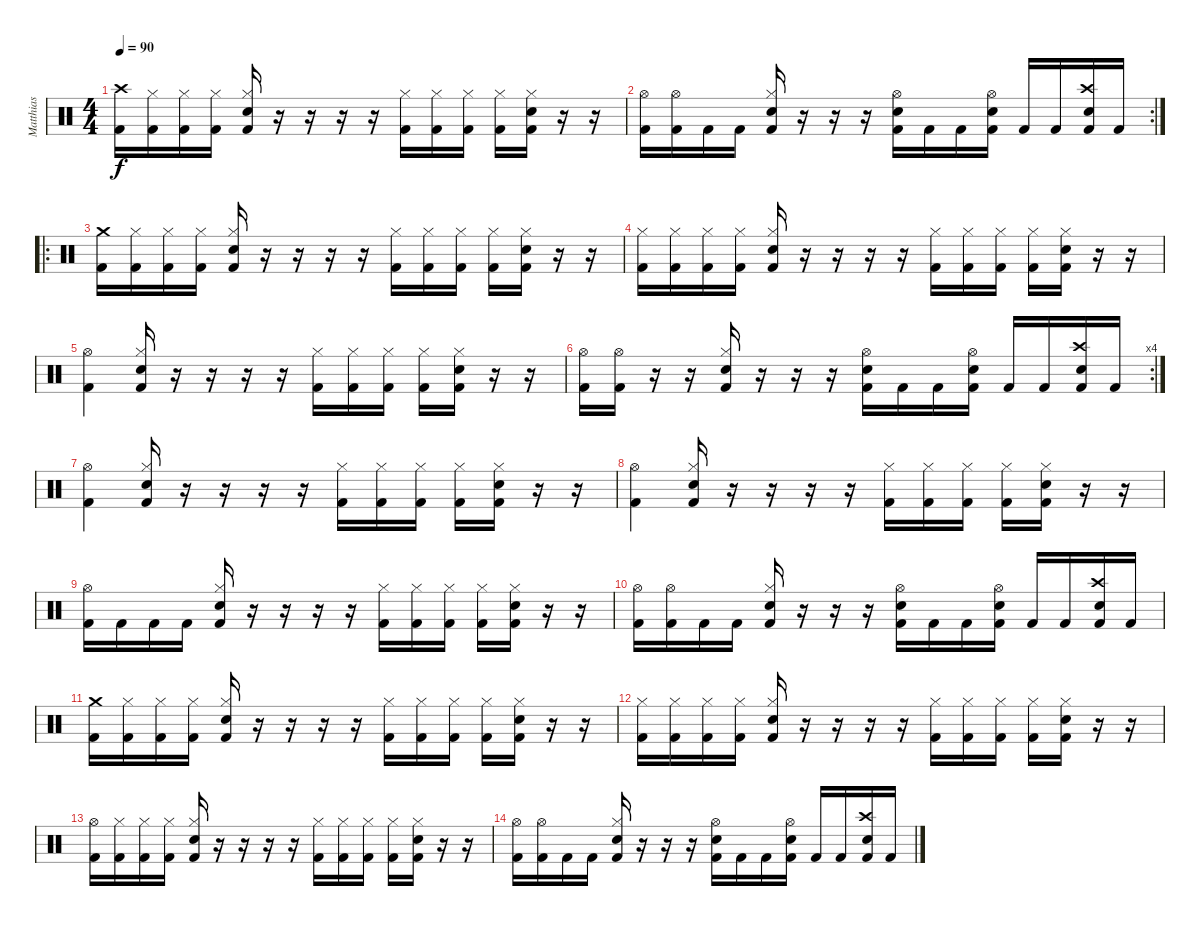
\track ("Matthias" "Matthias") {instrument percussion}
\staff {score}
\articulation defaults
\ts (4 4)
\tempo 90
\clef neutral
\ks c
("Kick (hit) 2" "Crash high (hit)").16{dy f} ("Kick (hit) 2" "Hi-Hat (closed)").16 ("Kick (hit) 2" "Hi-Hat (closed)").16 ("Kick (hit) 2" "Hi-Hat (closed)").16 ("Kick (hit) 2" "Snare (hit) 2" "Hi-Hat (closed)").16 r.16 r.16 r.16 r.16 ("Kick (hit) 2" "Hi-Hat (closed)").16 ("Kick (hit) 2" "Hi-Hat (closed)").16 ("Kick (hit) 2" "Hi-Hat (closed)").16 ("Kick (hit) 2" "Hi-Hat (closed)").16 ("Kick (hit) 2" "Snare (hit) 2" "Hi-Hat (closed)").16 r.16 r.16 |
\rc 2
("Kick (hit) 2" "Hi-Hat (open)").16 ("Kick (hit) 2" "Hi-Hat (open)").16 "Kick (hit) 2".16 "Kick (hit) 2".16 ("Kick (hit) 2" "Snare (hit) 2" "Hi-Hat (closed)").16 r.16 r.16 r.16 ("Kick (hit) 2" "Snare (hit) 2" "Hi-Hat (open)").16 "Kick (hit) 2".16 "Kick (hit) 2".16 ("Kick (hit) 2" "Snare (hit) 2" "Hi-Hat (open)").16 "Kick (hit) 2".16 "Kick (hit) 2".16 ("Kick (hit) 2" "Snare (hit) 2" "Crash high (hit)").16 "Kick (hit) 2".16 |
\ro
("Kick (hit) 2" "Crash medium (hit)").16 ("Kick (hit) 2" "Hi-Hat (closed)").16 ("Kick (hit) 2" "Hi-Hat (closed)").16 ("Kick (hit) 2" "Hi-Hat (closed)").16 ("Kick (hit) 2" "Snare (hit) 2" "Hi-Hat (closed)").16 r.16 r.16 r.16 r.16 ("Kick (hit) 2" "Hi-Hat (closed)").16 ("Kick (hit) 2" "Hi-Hat (closed)").16 ("Kick (hit) 2" "Hi-Hat (closed)").16 ("Kick (hit) 2" "Hi-Hat (closed)").16 ("Kick (hit) 2" "Snare (hit) 2" "Hi-Hat (closed)").16 r.16 r.16 |
("Kick (hit) 2" "Hi-Hat (closed)").16 ("Kick (hit) 2" "Hi-Hat (closed)").16 ("Kick (hit) 2" "Hi-Hat (closed)").16 ("Kick (hit) 2" "Hi-Hat (closed)").16 ("Kick (hit) 2" "Snare (hit) 2" "Hi-Hat (closed)").16 r.16 r.16 r.16 r.16 ("Kick (hit) 2" "Hi-Hat (closed)").16 ("Kick (hit) 2" "Hi-Hat (closed)").16 ("Kick (hit) 2" "Hi-Hat (closed)").16 ("Kick (hit) 2" "Hi-Hat (closed)").16 ("Kick (hit) 2" "Snare (hit) 2" "Hi-Hat (closed)").16 r.16 r.16 |
("Kick (hit) 2" "Hi-Hat (open)").4 ("Kick (hit) 2" "Snare (hit) 2" "Hi-Hat (closed)").16 r.16 r.16 r.16 r.16 ("Kick (hit) 2" "Hi-Hat (closed)").16 ("Kick (hit) 2" "Hi-Hat (closed)").16 ("Kick (hit) 2" "Hi-Hat (closed)").16 ("Kick (hit) 2" "Hi-Hat (closed)").16 ("Kick (hit) 2" "Snare (hit) 2" "Hi-Hat (closed)").16 r.16 r.16 |
\rc 4
("Kick (hit) 2" "Hi-Hat (open)").16 ("Kick (hit) 2" "Hi-Hat (open)").16 r.16 r.16 ("Kick (hit) 2" "Snare (hit) 2" "Hi-Hat (closed)").16 r.16 r.16 r.16 ("Kick (hit) 2" "Snare (hit) 2" "Hi-Hat (open)").16 "Kick (hit) 2".16 "Kick (hit) 2".16 ("Kick (hit) 2" "Snare (hit) 2" "Hi-Hat (open)").16 "Kick (hit) 2".16 "Kick (hit) 2".16 ("Kick (hit) 2" "Snare (hit) 2" "Crash high (hit)").16 "Kick (hit) 2".16 |
("Kick (hit) 2" "Hi-Hat (open)").4 ("Kick (hit) 2" "Snare (hit) 2" "Hi-Hat (closed)").16 r.16 r.16 r.16 r.16 ("Kick (hit) 2" "Hi-Hat (closed)").16 ("Kick (hit) 2" "Hi-Hat (closed)").16 ("Kick (hit) 2" "Hi-Hat (closed)").16 ("Kick (hit) 2" "Hi-Hat (closed)").16 ("Kick (hit) 2" "Snare (hit) 2" "Hi-Hat (closed)").16 r.16 r.16 |
("Kick (hit) 2" "Hi-Hat (open)").4 ("Kick (hit) 2" "Snare (hit) 2" "Hi-Hat (closed)").16 r.16 r.16 r.16 r.16 ("Kick (hit) 2" "Hi-Hat (closed)").16 ("Kick (hit) 2" "Hi-Hat (closed)").16 ("Kick (hit) 2" "Hi-Hat (closed)").16 ("Kick (hit) 2" "Hi-Hat (closed)").16 ("Kick (hit) 2" "Snare (hit) 2" "Hi-Hat (closed)").16 r.16 r.16 |
("Kick (hit) 2" "Hi-Hat (open)").16 "Kick (hit) 2".16 "Kick (hit) 2".16 "Kick (hit) 2".16 ("Kick (hit) 2" "Snare (hit) 2" "Hi-Hat (closed)").16 r.16 r.16 r.16 r.16 ("Kick (hit) 2" "Hi-Hat (closed)").16 ("Kick (hit) 2" "Hi-Hat (closed)").16 ("Kick (hit) 2" "Hi-Hat (closed)").16 ("Kick (hit) 2" "Hi-Hat (closed)").16 ("Kick (hit) 2" "Snare (hit) 2" "Hi-Hat (closed)").16 r.16 r.16 |
("Kick (hit) 2" "Hi-Hat (open)").16 ("Kick (hit) 2" "Hi-Hat (open)").16 "Kick (hit) 2".16 "Kick (hit) 2".16 ("Kick (hit) 2" "Snare (hit) 2" "Hi-Hat (closed)").16 r.16 r.16 r.16 ("Kick (hit) 2" "Snare (hit) 2" "Hi-Hat (open)").16 "Kick (hit) 2".16 "Kick (hit) 2".16 ("Kick (hit) 2" "Snare (hit) 2" "Hi-Hat (open)").16 "Kick (hit) 2".16 "Kick (hit) 2".16 ("Kick (hit) 2" "Snare (hit) 2" "Crash high (hit)").16 "Kick (hit) 2".16 |
("Kick (hit) 2" "Crash medium (hit)").16 ("Kick (hit) 2" "Hi-Hat (closed)").16 ("Kick (hit) 2" "Hi-Hat (closed)").16 ("Kick (hit) 2" "Hi-Hat (closed)").16 ("Kick (hit) 2" "Snare (hit) 2" "Hi-Hat (closed)").16 r.16 r.16 r.16 r.16 ("Kick (hit) 2" "Hi-Hat (closed)").16 ("Kick (hit) 2" "Hi-Hat (closed)").16 ("Kick (hit) 2" "Hi-Hat (closed)").16 ("Kick (hit) 2" "Hi-Hat (closed)").16 ("Kick (hit) 2" "Snare (hit) 2" "Hi-Hat (closed)").16 r.16 r.16 |
("Kick (hit) 2" "Hi-Hat (closed)").16 ("Kick (hit) 2" "Hi-Hat (closed)").16 ("Kick (hit) 2" "Hi-Hat (closed)").16 ("Kick (hit) 2" "Hi-Hat (closed)").16 ("Kick (hit) 2" "Snare (hit) 2" "Hi-Hat (closed)").16 r.16 r.16 r.16 r.16 ("Kick (hit) 2" "Hi-Hat (closed)").16 ("Kick (hit) 2" "Hi-Hat (closed)").16 ("Kick (hit) 2" "Hi-Hat (closed)").16 ("Kick (hit) 2" "Hi-Hat (closed)").16 ("Kick (hit) 2" "Snare (hit) 2" "Hi-Hat (closed)").16 r.16 r.16 |
("Kick (hit) 2" "Hi-Hat (open)").16 ("Kick (hit) 2" "Hi-Hat (closed)").16 ("Kick (hit) 2" "Hi-Hat (closed)").16 ("Kick (hit) 2" "Hi-Hat (closed)").16 ("Kick (hit) 2" "Snare (hit) 2" "Hi-Hat (closed)").16 r.16 r.16 r.16 r.16 ("Kick (hit) 2" "Hi-Hat (closed)").16 ("Kick (hit) 2" "Hi-Hat (closed)").16 ("Kick (hit) 2" "Hi-Hat (closed)").16 ("Kick (hit) 2" "Hi-Hat (closed)").16 ("Kick (hit) 2" "Snare (hit) 2" "Hi-Hat (closed)").16 r.16 r.16 |
("Kick (hit) 2" "Hi-Hat (open)").16 ("Kick (hit) 2" "Hi-Hat (open)").16 "Kick (hit) 2".16 "Kick (hit) 2".16 ("Kick (hit) 2" "Snare (hit) 2" "Hi-Hat (closed)").16 r.16 r.16 r.16 ("Kick (hit) 2" "Snare (hit) 2" "Hi-Hat (open)").16 "Kick (hit) 2".16 "Kick (hit) 2".16 ("Kick (hit) 2" "Snare (hit) 2" "Hi-Hat (open)").16 "Kick (hit) 2".16 "Kick (hit) 2".16 ("Kick (hit) 2" "Snare (hit) 2" "Crash high (hit)").16 "Kick (hit) 2".16
